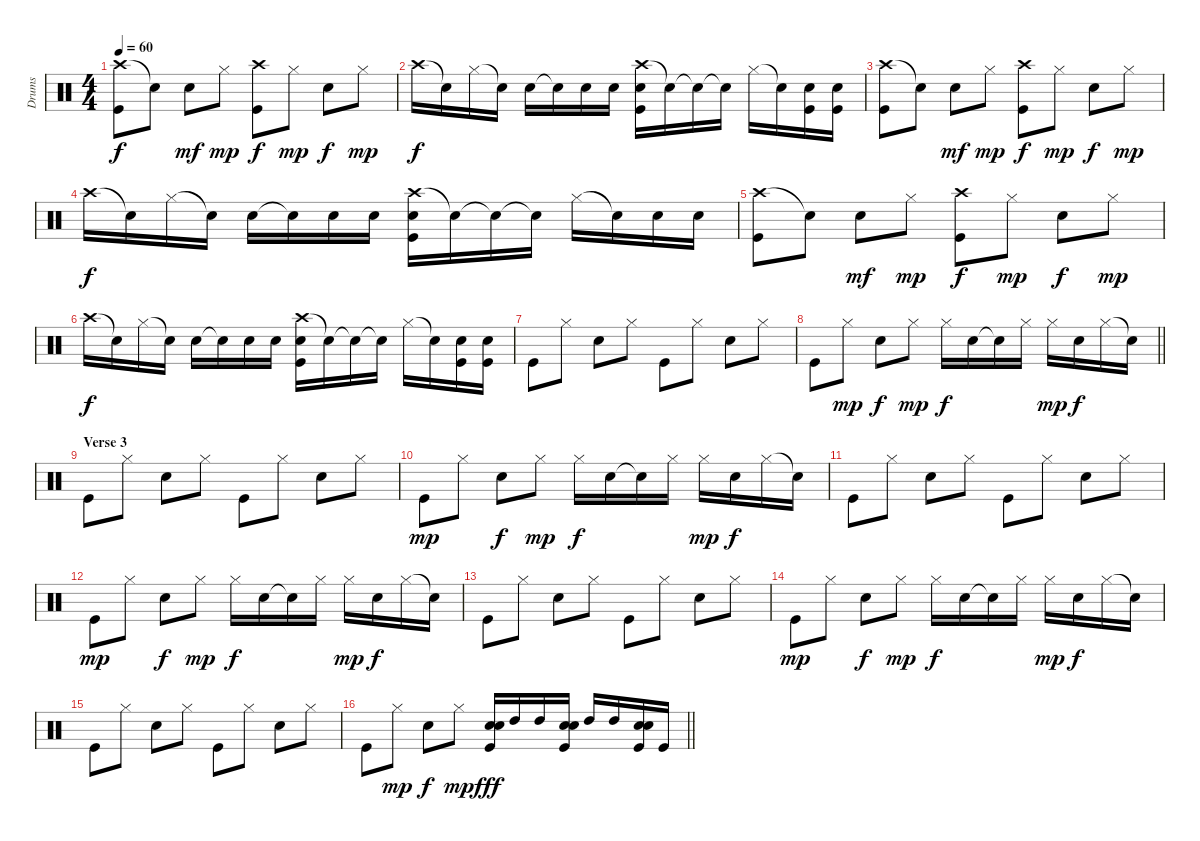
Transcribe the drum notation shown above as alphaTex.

\track ("Drums" "Drums") {instrument percussion}
\staff {score}
\articulation defaults
\ts (4 4)
\tempo 60
\clef neutral
\ks c
("Crash high (hit)" "Kick (hit)").8{dy f} "Snare (hit)"{t}.8 "Snare (hit) 2".8{dy mf} "Hi-Hat (closed)".8{dy mp} ("Crash high (hit)" "Kick (hit)").8{dy f} "Hi-Hat (closed)".8{dy mp} "Snare (hit) 2".8{dy f} "Hi-Hat (closed)".8{dy mp} |
"Crash high (hit)".16{dy f} "Snare (hit)"{t}.16 "Hi-Hat (closed)".16 "Snare (hit)"{t}.16 "Snare (hit) 2".16 "Snare (hit)"{t}.16 "Snare (hit) 2".16 "Snare (hit) 2".16 ("Crash high (hit)" "Snare (hit) 2" "Kick (hit)").16 "Snare (hit)"{t}.16 "Snare (hit)"{t}.16 "Snare (hit) 2"{t}.16 "Hi-Hat (closed)".16 "Snare (hit)"{t}.16 ("Snare (hit) 2" "Kick (hit)").16 ("Snare (hit) 2" "Kick (hit)").16 |
("Crash high (hit)" "Kick (hit)").8 "Snare (hit)"{t}.8 "Snare (hit) 2".8{dy mf} "Hi-Hat (closed)".8{dy mp} ("Crash high (hit)" "Kick (hit)").8{dy f} "Hi-Hat (closed)".8{dy mp} "Snare (hit) 2".8{dy f} "Hi-Hat (closed)".8{dy mp} |
"Crash high (hit)".16{dy f} "Snare (hit)"{t}.16 "Hi-Hat (closed)".16 "Snare (hit)"{t}.16 "Snare (hit) 2".16 "Snare (hit)"{t}.16 "Snare (hit) 2".16 "Snare (hit) 2".16 ("Crash high (hit)" "Snare (hit) 2" "Kick (hit)").16 "Snare (hit)"{t}.16 "Snare (hit)"{t}.16 "Snare (hit) 2"{t}.16 "Hi-Hat (closed)".16 "Snare (hit)"{t}.16 "Snare (hit) 2".16 "Snare (hit) 2".16 |
("Crash high (hit)" "Kick (hit)").8 "Snare (hit)"{t}.8 "Snare (hit) 2".8{dy mf} "Hi-Hat (closed)".8{dy mp} ("Crash high (hit)" "Kick (hit)").8{dy f} "Hi-Hat (closed)".8{dy mp} "Snare (hit) 2".8{dy f} "Hi-Hat (closed)".8{dy mp} |
"Crash high (hit)".16{dy f} "Snare (hit)"{t}.16 "Hi-Hat (closed)".16 "Snare (hit)"{t}.16 "Snare (hit) 2".16 "Snare (hit)"{t}.16 "Snare (hit) 2".16 "Snare (hit) 2".16 ("Crash high (hit)" "Snare (hit) 2" "Kick (hit)").16 "Snare (hit)"{t}.16 "Snare (hit)"{t}.16 "Snare (hit) 2"{t}.16 "Hi-Hat (closed)".16 "Snare (hit)"{t}.16 ("Snare (hit) 2" "Kick (hit)").16 ("Snare (hit) 2" "Kick (hit)").16 |
"Kick (hit)".8 "Hi-Hat (closed)".8 "Snare (hit) 2".8 "Hi-Hat (closed)".8 "Kick (hit)".8 "Hi-Hat (closed)".8 "Snare (hit) 2".8 "Hi-Hat (closed)".8 |
\barLineRight lightlight "Kick (hit)".8 "Hi-Hat (closed)".8{dy mp} "Snare (hit) 2".8{dy f} "Hi-Hat (closed)".8{dy mp} "Hi-Hat (closed)".16{dy f} "Snare (hit) 2".16 "Snare (hit)"{t}.16 "Hi-Hat (closed)".16 "Hi-Hat (closed)".16{dy mp} "Snare (hit) 2".16{dy f} "Hi-Hat (closed)".16 "Snare (hit)"{t}.16
|
\section ("" "Verse 3")
"Kick (hit)".8 "Hi-Hat (closed)".8 "Snare (hit) 2".8 "Hi-Hat (closed)".8 "Kick (hit)".8 "Hi-Hat (closed)".8 "Snare (hit) 2".8 "Hi-Hat (closed)".8 |
"Kick (hit)".8{dy mp} "Hi-Hat (closed)".8 "Snare (hit) 2".8{dy f} "Hi-Hat (closed)".8{dy mp} "Hi-Hat (closed)".16{dy f} "Snare (hit) 2".16 "Snare (hit)"{t}.16 "Hi-Hat (closed)".16 "Hi-Hat (closed)".16{dy mp} "Snare (hit) 2".16{dy f} "Hi-Hat (closed)".16 "Snare (hit)"{t}.16 |
"Kick (hit)".8 "Hi-Hat (closed)".8 "Snare (hit) 2".8 "Hi-Hat (closed)".8 "Kick (hit)".8 "Hi-Hat (closed)".8 "Snare (hit) 2".8 "Hi-Hat (closed)".8 |
"Kick (hit)".8{dy mp} "Hi-Hat (closed)".8 "Snare (hit) 2".8{dy f} "Hi-Hat (closed)".8{dy mp} "Hi-Hat (closed)".16{dy f} "Snare (hit) 2".16 "Snare (hit)"{t}.16 "Hi-Hat (closed)".16 "Hi-Hat (closed)".16{dy mp} "Snare (hit) 2".16{dy f} "Hi-Hat (closed)".16 "Snare (hit)"{t}.16 |
"Kick (hit)".8 "Hi-Hat (closed)".8 "Snare (hit) 2".8 "Hi-Hat (closed)".8 "Kick (hit)".8 "Hi-Hat (closed)".8 "Snare (hit) 2".8 "Hi-Hat (closed)".8 |
"Kick (hit)".8{dy mp} "Hi-Hat (closed)".8 "Snare (hit) 2".8{dy f} "Hi-Hat (closed)".8{dy mp} "Hi-Hat (closed)".16{dy f} "Snare (hit) 2".16 "Snare (hit)"{t}.16 "Hi-Hat (closed)".16 "Hi-Hat (closed)".16{dy mp} "Snare (hit) 2".16{dy f} "Hi-Hat (closed)".16 "Snare (hit)"{t}.16 |
"Kick (hit)".8 "Hi-Hat (closed)".8 "Snare (hit) 2".8 "Hi-Hat (closed)".8 "Kick (hit)".8 "Hi-Hat (closed)".8 "Snare (hit) 2".8 "Hi-Hat (closed)".8 |
\barLineRight lightlight "Kick (hit)".8 "Hi-Hat (closed)".8{dy mp} "Snare (hit) 2".8{dy f} "Hi-Hat (closed)".8{dy mp}
("Electric Snare (hit)" "Snare (hit) 2" "Kick (hit)").16{dy fff} "High Tom (hit)".16 "High Tom (hit)".16 ("Electric Snare (hit)" "Snare (hit) 2" "Kick (hit)").16 "High Tom (hit)".16 "High Tom (hit)".16 ("Electric Snare (hit)" "Snare (hit) 2" "Kick (hit)").16 "Kick (hit)".16
